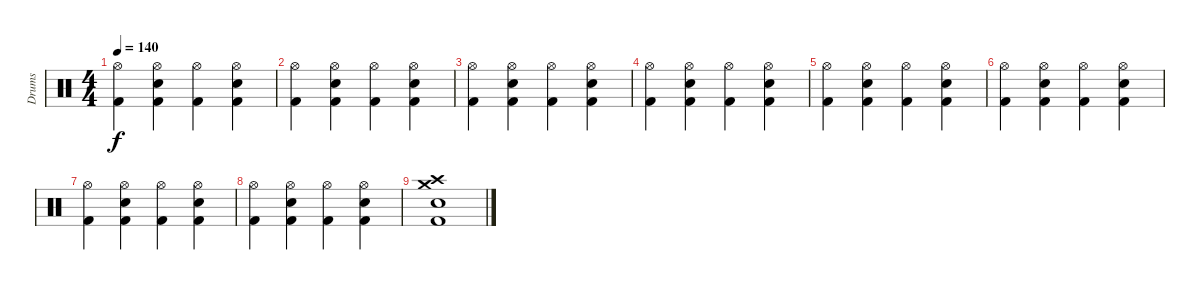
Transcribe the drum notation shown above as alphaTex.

\track ("Drums" "Drums") {instrument percussion}
\staff {score}
\articulation defaults
\ts (4 4)
\tempo 140
\clef neutral
\ks c
("Hi-Hat (open)" "Kick (hit) 2").4{dy f} ("Hi-Hat (open)" "Electric Snare (hit)" "Kick (hit) 2").4 ("Hi-Hat (open)" "Kick (hit) 2").4 ("Hi-Hat (open)" "Electric Snare (hit)" "Kick (hit) 2").4 |
("Hi-Hat (open)" "Kick (hit) 2").4 ("Hi-Hat (open)" "Electric Snare (hit)" "Kick (hit) 2").4 ("Hi-Hat (open)" "Kick (hit) 2").4 ("Hi-Hat (open)" "Electric Snare (hit)" "Kick (hit) 2").4 |
("Hi-Hat (open)" "Kick (hit) 2").4 ("Hi-Hat (open)" "Electric Snare (hit)" "Kick (hit) 2").4 ("Hi-Hat (open)" "Kick (hit) 2").4 ("Hi-Hat (open)" "Electric Snare (hit)" "Kick (hit) 2").4 |
("Hi-Hat (open)" "Kick (hit) 2").4 ("Hi-Hat (open)" "Electric Snare (hit)" "Kick (hit) 2").4 ("Hi-Hat (open)" "Kick (hit) 2").4 ("Hi-Hat (open)" "Electric Snare (hit)" "Kick (hit) 2").4 |
("Hi-Hat (open)" "Kick (hit) 2").4 ("Hi-Hat (open)" "Electric Snare (hit)" "Kick (hit) 2").4 ("Hi-Hat (open)" "Kick (hit) 2").4 ("Hi-Hat (open)" "Electric Snare (hit)" "Kick (hit) 2").4 |
("Hi-Hat (open)" "Kick (hit) 2").4 ("Hi-Hat (open)" "Electric Snare (hit)" "Kick (hit) 2").4 ("Hi-Hat (open)" "Kick (hit) 2").4 ("Hi-Hat (open)" "Electric Snare (hit)" "Kick (hit) 2").4 |
("Hi-Hat (open)" "Kick (hit) 2").4 ("Hi-Hat (open)" "Electric Snare (hit)" "Kick (hit) 2").4 ("Hi-Hat (open)" "Kick (hit) 2").4 ("Hi-Hat (open)" "Electric Snare (hit)" "Kick (hit) 2").4 |
("Hi-Hat (open)" "Kick (hit) 2").4 ("Hi-Hat (open)" "Electric Snare (hit)" "Kick (hit) 2").4 ("Hi-Hat (open)" "Kick (hit) 2").4 ("Hi-Hat (open)" "Electric Snare (hit)" "Kick (hit) 2").4 |
("Crash high (hit)" "Kick (hit) 2" "Electric Snare (hit)" "Crash medium (hit)").1
